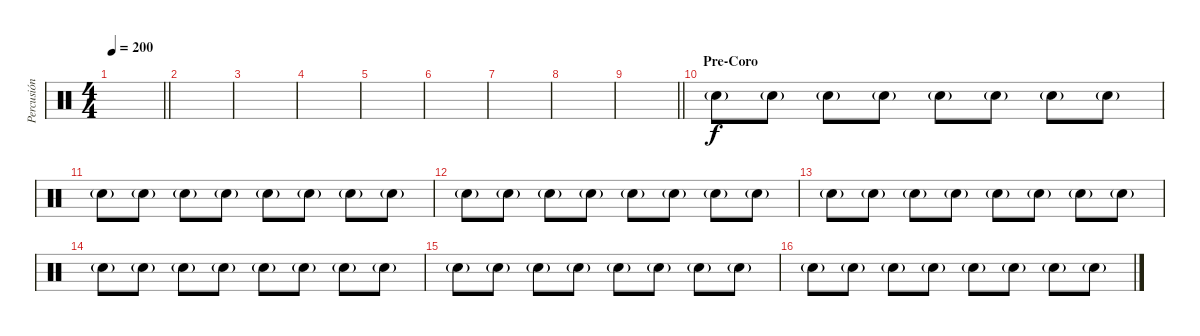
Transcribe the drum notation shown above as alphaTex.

\track ("Percusión" "Percusión") {instrument percussion}
\staff {score}
\articulation defaults
\ts (4 4)
\tempo 200
\clef neutral
\barLineRight lightlight
\ks c
|
\section ("" "")
|
|
|
|
|
|
|
\barLineRight lightlight
|
\section ("" "Pre-Coro")
"Hand Clap (hit)"{g}.8 "Hand Clap (hit)"{g}.8 "Hand Clap (hit)"{g}.8 "Hand Clap (hit)"{g}.8 "Hand Clap (hit)"{g}.8 "Hand Clap (hit)"{g}.8 "Hand Clap (hit)"{g}.8 "Hand Clap (hit)"{g}.8 |
"Hand Clap (hit)"{g}.8 "Hand Clap (hit)"{g}.8 "Hand Clap (hit)"{g}.8 "Hand Clap (hit)"{g}.8 "Hand Clap (hit)"{g}.8 "Hand Clap (hit)"{g}.8 "Hand Clap (hit)"{g}.8 "Hand Clap (hit)"{g}.8 |
"Hand Clap (hit)"{g}.8 "Hand Clap (hit)"{g}.8 "Hand Clap (hit)"{g}.8 "Hand Clap (hit)"{g}.8 "Hand Clap (hit)"{g}.8 "Hand Clap (hit)"{g}.8 "Hand Clap (hit)"{g}.8 "Hand Clap (hit)"{g}.8 |
"Hand Clap (hit)"{g}.8 "Hand Clap (hit)"{g}.8 "Hand Clap (hit)"{g}.8 "Hand Clap (hit)"{g}.8 "Hand Clap (hit)"{g}.8 "Hand Clap (hit)"{g}.8 "Hand Clap (hit)"{g}.8 "Hand Clap (hit)"{g}.8 |
"Hand Clap (hit)"{g}.8 "Hand Clap (hit)"{g}.8 "Hand Clap (hit)"{g}.8 "Hand Clap (hit)"{g}.8 "Hand Clap (hit)"{g}.8 "Hand Clap (hit)"{g}.8 "Hand Clap (hit)"{g}.8 "Hand Clap (hit)"{g}.8 |
"Hand Clap (hit)"{g}.8 "Hand Clap (hit)"{g}.8 "Hand Clap (hit)"{g}.8 "Hand Clap (hit)"{g}.8 "Hand Clap (hit)"{g}.8 "Hand Clap (hit)"{g}.8 "Hand Clap (hit)"{g}.8 "Hand Clap (hit)"{g}.8 |
"Hand Clap (hit)"{g}.8 "Hand Clap (hit)"{g}.8 "Hand Clap (hit)"{g}.8 "Hand Clap (hit)"{g}.8 "Hand Clap (hit)"{g}.8 "Hand Clap (hit)"{g}.8 "Hand Clap (hit)"{g}.8 "Hand Clap (hit)"{g}.8
